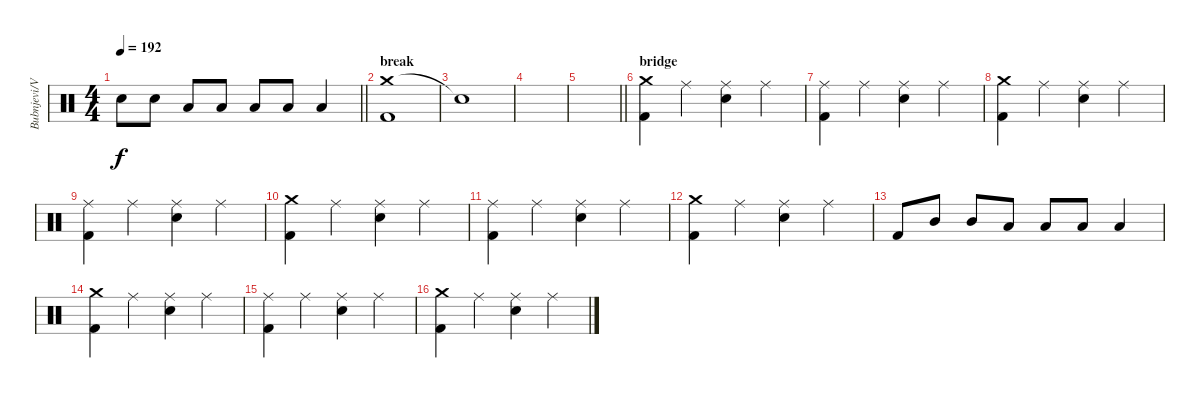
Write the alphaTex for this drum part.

\track ("Bubnjevi/Vestac Tlacitelj" "Bubnjevi/V") {instrument percussion}
\staff {score}
\articulation defaults
\ts (4 4)
\tempo 192
\clef neutral
\barLineRight lightlight
\ks c "Electric Snare (hit)".8{dy f} "Electric Snare (hit)".8 "Low Tom (hit)".8 "Low Tom (hit)".8 "Low Tom (hit)".8 "Low Tom (hit)".8 "Low Tom (hit)".4
|
\section ("" "break")
("Crash medium (hit)" "Kick (hit) 2").1 |
"Snare (hit)"{t}.1 |
|
\barLineRight lightlight
|
\section ("" "bridge")
("Crash medium (hit)" "Kick (hit) 2").4 "Ride (middle)".4 ("Ride (middle)" "Electric Snare (hit)").4 "Ride (middle)".4 |
("Ride (middle)" "Kick (hit) 2").4 "Ride (middle)".4 ("Ride (middle)" "Electric Snare (hit)").4 "Ride (middle)".4 |
("Crash medium (hit)" "Kick (hit) 2").4 "Ride (middle)".4 ("Ride (middle)" "Electric Snare (hit)").4 "Ride (middle)".4 |
("Ride (middle)" "Kick (hit) 2").4 "Ride (middle)".4 ("Ride (middle)" "Electric Snare (hit)").4 "Ride (middle)".4 |
("Crash medium (hit)" "Kick (hit) 2").4 "Ride (middle)".4 ("Ride (middle)" "Electric Snare (hit)").4 "Ride (middle)".4 |
("Ride (middle)" "Kick (hit) 2").4 "Ride (middle)".4 ("Ride (middle)" "Electric Snare (hit)").4 "Ride (middle)".4 |
("Crash medium (hit)" "Kick (hit) 2").4 "Ride (middle)".4 ("Ride (middle)" "Electric Snare (hit)").4 "Ride (middle)".4 |
"Kick (hit) 2".8 "Mid Tom (hit)".8 "Mid Tom (hit)".8 "Low Tom (hit)".8 "Low Tom (hit)".8 "Low Floor Tom (hit)".8 "Low Floor Tom (hit)".4 |
("Crash medium (hit)" "Kick (hit) 2").4 "Ride (middle)".4 ("Ride (middle)" "Electric Snare (hit)").4 "Ride (middle)".4 |
("Ride (middle)" "Kick (hit) 2").4 "Ride (middle)".4 ("Ride (middle)" "Electric Snare (hit)").4 "Ride (middle)".4 |
("Crash medium (hit)" "Kick (hit) 2").4 "Ride (middle)".4 ("Ride (middle)" "Electric Snare (hit)").4 "Ride (middle)".4
